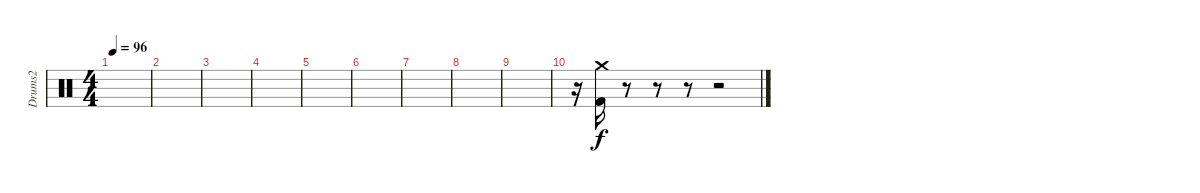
\track ("Drums2" "Drums2") {instrument percussion}
\staff {score}
\articulation defaults
\ts (4 4)
\tempo 96
\clef neutral
\ks c
|
|
|
|
|
|
|
|
|
r.16 ("Crash medium (hit)" "Kick (hit) 2").16 r.8 r.8 r.8 r.2
